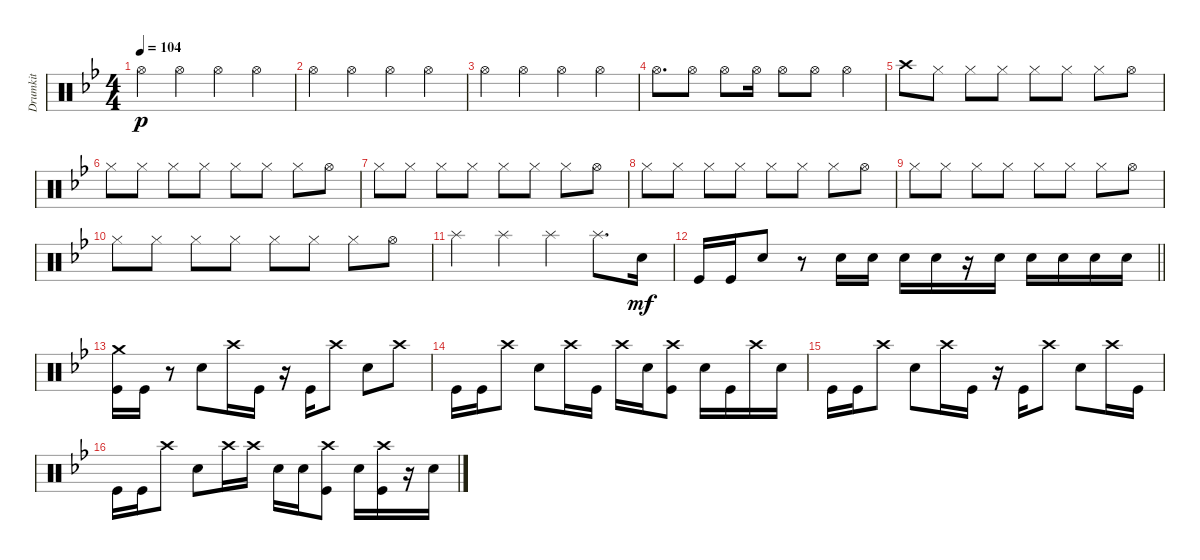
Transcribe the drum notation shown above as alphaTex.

\track ("Drumkit" "Drumkit") {instrument percussion}
\staff {score}
\articulation defaults
\ts (4 4)
\tempo 104
\clef neutral
\ks bb "Hi-Hat (open)".4{dy p} "Hi-Hat (open)".4 "Hi-Hat (open)".4 "Hi-Hat (open)".4
|
"Hi-Hat (open)".4 "Hi-Hat (open)".4 "Hi-Hat (open)".4 "Hi-Hat (open)".4 |
"Hi-Hat (open)".4 "Hi-Hat (open)".4 "Hi-Hat (open)".4 "Hi-Hat (open)".4 |
"Hi-Hat (open)".8{d} "Hi-Hat (open)".8 "Hi-Hat (open)".8 "Hi-Hat (open)".16 "Hi-Hat (open)".8 "Hi-Hat (open)".8 "Hi-Hat (open)".4 |
"Crash high (hit)".8 "Hi-Hat (closed)".8 "Hi-Hat (closed)".8 "Hi-Hat (closed)".8 "Hi-Hat (closed)".8 "Hi-Hat (closed)".8 "Hi-Hat (closed)".8 "Hi-Hat (open)".8 |
"Hi-Hat (closed)".8 "Hi-Hat (closed)".8 "Hi-Hat (closed)".8 "Hi-Hat (closed)".8 "Hi-Hat (closed)".8 "Hi-Hat (closed)".8 "Hi-Hat (closed)".8 "Hi-Hat (open)".8 |
"Hi-Hat (closed)".8 "Hi-Hat (closed)".8 "Hi-Hat (closed)".8 "Hi-Hat (closed)".8 "Hi-Hat (closed)".8 "Hi-Hat (closed)".8 "Hi-Hat (closed)".8 "Hi-Hat (open)".8 |
"Hi-Hat (closed)".8 "Hi-Hat (closed)".8 "Hi-Hat (closed)".8 "Hi-Hat (closed)".8 "Hi-Hat (closed)".8 "Hi-Hat (closed)".8 "Hi-Hat (closed)".8 "Hi-Hat (open)".8 |
"Hi-Hat (closed)".8 "Hi-Hat (closed)".8 "Hi-Hat (closed)".8 "Hi-Hat (closed)".8 "Hi-Hat (closed)".8 "Hi-Hat (closed)".8 "Hi-Hat (closed)".8 "Hi-Hat (open)".8 |
"Hi-Hat (closed)".8 "Hi-Hat (closed)".8 "Hi-Hat (closed)".8 "Hi-Hat (closed)".8 "Hi-Hat (closed)".8 "Hi-Hat (closed)".8 "Hi-Hat (closed)".8 "Hi-Hat (open)".8 |
"Splash (hit)".4 "Splash (hit)".4 "Splash (hit)".4 "Splash (hit)".8{d} "Snare (hit) 2".16{dy mf} |
\barLineRight lightlight "Kick (hit)".16 "Kick (hit)".16 "Snare (hit) 2".8
r.8 "Snare (hit) 2".16 "Snare (hit) 2".16 "Snare (hit) 2".16 "Snare (hit) 2".16 r.16 "Snare (hit) 2".16 "Snare (hit) 2".16 "Snare (hit) 2".16 "Snare (hit) 2".16 "Snare (hit) 2".16 |
("Kick (hit)" "Crash medium (hit)").16 "Kick (hit)".16 r.8 "Snare (hit) 2".8 "Crash high (hit)".16 "Kick (hit)".16 r.16 "Kick (hit)".16 "Crash high (hit)".8 "Snare (hit) 2".8 "Crash high (hit)".8 |
"Kick (hit)".16 "Kick (hit)".16 "Crash high (hit)".8 "Snare (hit) 2".8 "Crash high (hit)".16 "Kick (hit)".16 "Crash high (hit)".16 "Snare (hit) 2".16 ("Crash high (hit)" "Kick (hit)").8 "Snare (hit) 2".16 "Kick (hit)".16 "Crash high (hit)".16 "Snare (hit) 2".16 |
"Kick (hit)".16 "Kick (hit)".16 "Crash high (hit)".8 "Snare (hit) 2".8 "Crash high (hit)".16 "Kick (hit)".16 r.16 "Kick (hit)".16 "Crash high (hit)".8 "Snare (hit) 2".8 "Crash high (hit)".16 "Kick (hit)".16 |
"Kick (hit)".16 "Kick (hit)".16 "Crash high (hit)".8 "Snare (hit) 2".8 "Crash high (hit)".16 "Crash high (hit)".16 "Snare (hit) 2".16 "Snare (hit) 2".16 ("Crash high (hit)" "Kick (hit)").8 "Snare (hit) 2".16 ("Kick (hit)" "Crash high (hit)").16 r.16 "Snare (hit) 2".16
